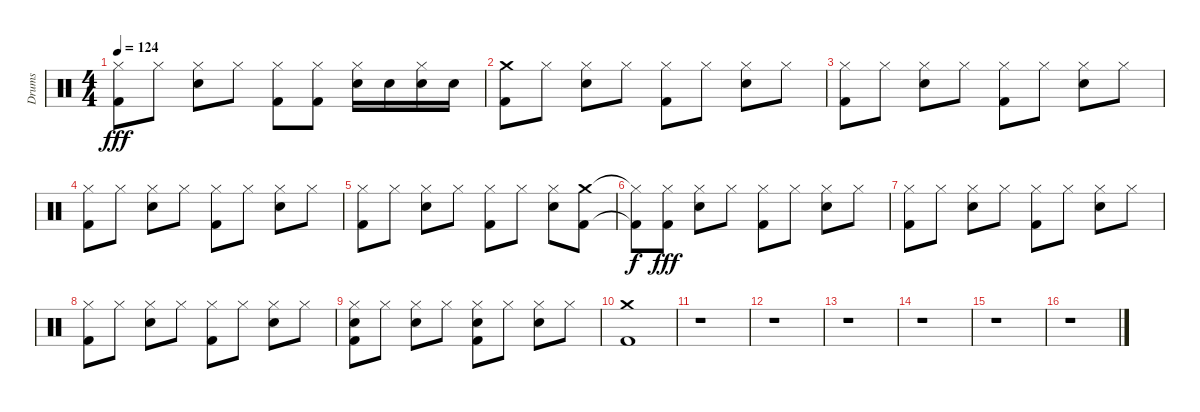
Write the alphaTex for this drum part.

\track ("Drums" "Drums") {instrument percussion}
\staff {score}
\articulation defaults
\ts (4 4)
\tempo 124
\clef neutral
\ks c
("Hi-Hat (closed)" "Kick (hit) 2").8{dy fff} "Hi-Hat (closed)".8 ("Hi-Hat (closed)" "Snare (hit) 2").8 "Hi-Hat (closed)".8 ("Hi-Hat (closed)" "Kick (hit) 2").8 ("Hi-Hat (closed)" "Kick (hit) 2").8 ("Hi-Hat (closed)" "Snare (hit) 2").16 "Snare (hit) 2".16 ("Hi-Hat (closed)" "Snare (hit) 2").16 "Snare (hit) 2".16 |
("Crash medium (hit)" "Kick (hit) 2").8 "Hi-Hat (closed)".8 ("Hi-Hat (closed)" "Snare (hit) 2").8 "Hi-Hat (closed)".8 ("Hi-Hat (closed)" "Kick (hit) 2").8 "Hi-Hat (closed)".8 ("Hi-Hat (closed)" "Snare (hit) 2").8 "Hi-Hat (closed)".8 |
("Hi-Hat (closed)" "Kick (hit) 2").8 "Hi-Hat (closed)".8 ("Hi-Hat (closed)" "Snare (hit) 2").8 "Hi-Hat (closed)".8 ("Hi-Hat (closed)" "Kick (hit) 2").8 "Hi-Hat (closed)".8 ("Hi-Hat (closed)" "Snare (hit) 2").8 "Hi-Hat (closed)".8 |
("Hi-Hat (closed)" "Kick (hit) 2").8 "Hi-Hat (closed)".8 ("Hi-Hat (closed)" "Snare (hit) 2").8 "Hi-Hat (closed)".8 ("Hi-Hat (closed)" "Kick (hit) 2").8 "Hi-Hat (closed)".8 ("Hi-Hat (closed)" "Snare (hit) 2").8 "Hi-Hat (closed)".8 |
("Hi-Hat (closed)" "Kick (hit) 2").8 "Hi-Hat (closed)".8 ("Hi-Hat (closed)" "Snare (hit) 2").8 "Hi-Hat (closed)".8 ("Hi-Hat (closed)" "Kick (hit) 2").8 "Hi-Hat (closed)".8 ("Hi-Hat (closed)" "Snare (hit) 2").8 ("Crash medium (hit)" "Kick (hit) 2").8 |
("Hi-Hat (closed)"{t} "Kick (hit) 2"{t}).8{dy f} ("Hi-Hat (closed)" "Kick (hit) 2").8{dy fff} ("Hi-Hat (closed)" "Snare (hit) 2").8 "Hi-Hat (closed)".8 ("Hi-Hat (closed)" "Kick (hit) 2").8 "Hi-Hat (closed)".8 ("Hi-Hat (closed)" "Snare (hit) 2").8 "Hi-Hat (closed)".8 |
("Hi-Hat (closed)" "Kick (hit) 2").8 "Hi-Hat (closed)".8 ("Hi-Hat (closed)" "Snare (hit) 2").8 "Hi-Hat (closed)".8 ("Hi-Hat (closed)" "Kick (hit) 2").8 "Hi-Hat (closed)".8 ("Hi-Hat (closed)" "Snare (hit) 2").8 "Hi-Hat (closed)".8 |
("Hi-Hat (closed)" "Kick (hit) 2").8 "Hi-Hat (closed)".8 ("Hi-Hat (closed)" "Snare (hit) 2").8 "Hi-Hat (closed)".8 ("Hi-Hat (closed)" "Kick (hit) 2").8 "Hi-Hat (closed)".8 ("Hi-Hat (closed)" "Snare (hit) 2").8 "Hi-Hat (closed)".8 |
("Hi-Hat (closed)" "Snare (hit) 2" "Kick (hit) 2").8 "Hi-Hat (closed)".8 ("Hi-Hat (closed)" "Snare (hit) 2").8 "Hi-Hat (closed)".8 ("Hi-Hat (closed)" "Snare (hit) 2" "Kick (hit) 2").8 "Hi-Hat (closed)".8 ("Hi-Hat (closed)" "Snare (hit) 2").8 "Hi-Hat (closed)".8 |
("Crash medium (hit)" "Kick (hit) 2").1 |
r.1 |
r.1 |
r.1 |
r.1 |
r.1 |
r.1
